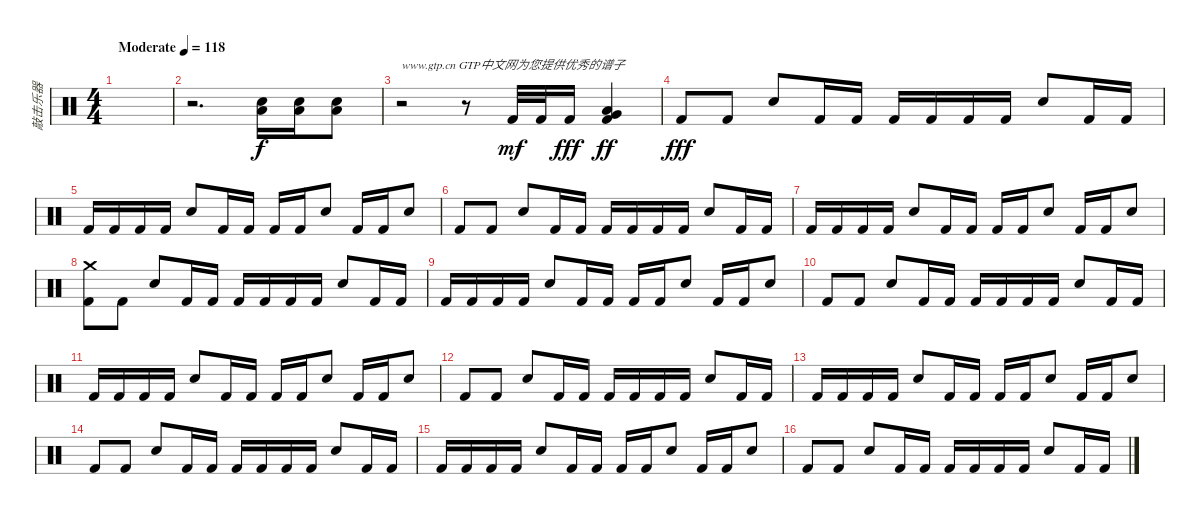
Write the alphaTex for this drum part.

\track ("敲击乐器" "敲击乐器") {instrument percussion}
\staff {score}
\articulation defaults
\ts (4 4)
\tempo (118 "Moderate")
\clef neutral
\ks c
|
r.2{d} ("Snare (hit) 2" "Low Floor Tom (hit)").16 ("Snare (hit) 2" "Low Floor Tom (hit)").16 ("Snare (hit) 2" "Low Floor Tom (hit)").8 |
r.2{txt "www.gtp.cn GTP中文网为您提供优秀的谱子"} r.8 "Kick (hit) 2".32{dy mf} "Kick (hit) 2".32 "Kick (hit) 2".16{dy fff} ("Low Floor Tom (hit)" "Very Low Tom (hit)" "Kick (hit) 2").4{dy ff} |
"Kick (hit) 2".8{dy fff} "Kick (hit) 2".8 "Snare (hit) 2".8 "Kick (hit) 2".16 "Kick (hit) 2".16 "Kick (hit) 2".16 "Kick (hit) 2".16 "Kick (hit) 2".16 "Kick (hit) 2".16 "Snare (hit) 2".8 "Kick (hit) 2".16 "Kick (hit) 2".16 |
"Kick (hit) 2".16 "Kick (hit) 2".16 "Kick (hit) 2".16 "Kick (hit) 2".16 "Snare (hit) 2".8 "Kick (hit) 2".16 "Kick (hit) 2".16 "Kick (hit) 2".16 "Kick (hit) 2".16 "Snare (hit) 2".8 "Kick (hit) 2".16 "Kick (hit) 2".16 "Snare (hit) 2".8 |
"Kick (hit) 2".8 "Kick (hit) 2".8 "Snare (hit) 2".8 "Kick (hit) 2".16 "Kick (hit) 2".16 "Kick (hit) 2".16 "Kick (hit) 2".16 "Kick (hit) 2".16 "Kick (hit) 2".16 "Snare (hit) 2".8 "Kick (hit) 2".16 "Kick (hit) 2".16 |
"Kick (hit) 2".16 "Kick (hit) 2".16 "Kick (hit) 2".16 "Kick (hit) 2".16 "Snare (hit) 2".8 "Kick (hit) 2".16 "Kick (hit) 2".16 "Kick (hit) 2".16 "Kick (hit) 2".16 "Snare (hit) 2".8 "Kick (hit) 2".16 "Kick (hit) 2".16 "Snare (hit) 2".8 |
("Crash medium (hit)" "Kick (hit) 2").8 "Kick (hit) 2".8 "Snare (hit) 2".8 "Kick (hit) 2".16 "Kick (hit) 2".16 "Kick (hit) 2".16 "Kick (hit) 2".16 "Kick (hit) 2".16 "Kick (hit) 2".16 "Snare (hit) 2".8 "Kick (hit) 2".16 "Kick (hit) 2".16 |
"Kick (hit) 2".16 "Kick (hit) 2".16 "Kick (hit) 2".16 "Kick (hit) 2".16 "Snare (hit) 2".8 "Kick (hit) 2".16 "Kick (hit) 2".16 "Kick (hit) 2".16 "Kick (hit) 2".16 "Snare (hit) 2".8 "Kick (hit) 2".16 "Kick (hit) 2".16 "Snare (hit) 2".8 |
"Kick (hit) 2".8 "Kick (hit) 2".8 "Snare (hit) 2".8 "Kick (hit) 2".16 "Kick (hit) 2".16 "Kick (hit) 2".16 "Kick (hit) 2".16 "Kick (hit) 2".16 "Kick (hit) 2".16 "Snare (hit) 2".8 "Kick (hit) 2".16 "Kick (hit) 2".16 |
"Kick (hit) 2".16 "Kick (hit) 2".16 "Kick (hit) 2".16 "Kick (hit) 2".16 "Snare (hit) 2".8 "Kick (hit) 2".16 "Kick (hit) 2".16 "Kick (hit) 2".16 "Kick (hit) 2".16 "Snare (hit) 2".8 "Kick (hit) 2".16 "Kick (hit) 2".16 "Snare (hit) 2".8 |
"Kick (hit) 2".8 "Kick (hit) 2".8 "Snare (hit) 2".8 "Kick (hit) 2".16 "Kick (hit) 2".16 "Kick (hit) 2".16 "Kick (hit) 2".16 "Kick (hit) 2".16 "Kick (hit) 2".16 "Snare (hit) 2".8 "Kick (hit) 2".16 "Kick (hit) 2".16 |
"Kick (hit) 2".16 "Kick (hit) 2".16 "Kick (hit) 2".16 "Kick (hit) 2".16 "Snare (hit) 2".8 "Kick (hit) 2".16 "Kick (hit) 2".16 "Kick (hit) 2".16 "Kick (hit) 2".16 "Snare (hit) 2".8 "Kick (hit) 2".16 "Kick (hit) 2".16 "Snare (hit) 2".8 |
"Kick (hit) 2".8 "Kick (hit) 2".8 "Snare (hit) 2".8 "Kick (hit) 2".16 "Kick (hit) 2".16 "Kick (hit) 2".16 "Kick (hit) 2".16 "Kick (hit) 2".16 "Kick (hit) 2".16 "Snare (hit) 2".8 "Kick (hit) 2".16 "Kick (hit) 2".16 |
"Kick (hit) 2".16 "Kick (hit) 2".16 "Kick (hit) 2".16 "Kick (hit) 2".16 "Snare (hit) 2".8 "Kick (hit) 2".16 "Kick (hit) 2".16 "Kick (hit) 2".16 "Kick (hit) 2".16 "Snare (hit) 2".8 "Kick (hit) 2".16 "Kick (hit) 2".16 "Snare (hit) 2".8 |
"Kick (hit) 2".8 "Kick (hit) 2".8 "Snare (hit) 2".8 "Kick (hit) 2".16 "Kick (hit) 2".16 "Kick (hit) 2".16 "Kick (hit) 2".16 "Kick (hit) 2".16 "Kick (hit) 2".16 "Snare (hit) 2".8 "Kick (hit) 2".16 "Kick (hit) 2".16
